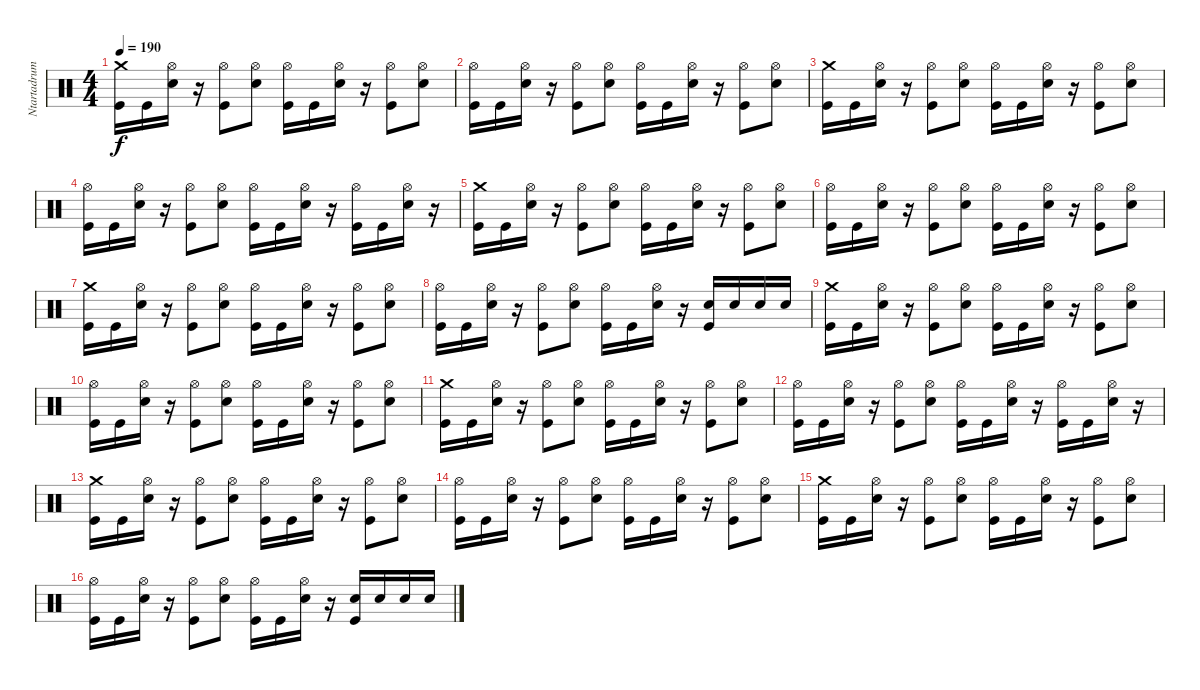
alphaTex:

\track ("Ntartadrum" "Ntartadrum") {instrument percussion}
\staff {score}
\articulation defaults
\ts (4 4)
\tempo 190
\clef neutral
\ks c
("Kick (hit)" "Crash medium (hit)").16{dy f} "Kick (hit)".16 ("Electric Snare (hit)" "Hi-Hat (open)").16 r.16 ("Kick (hit)" "Hi-Hat (open)").8 ("Electric Snare (hit)" "Hi-Hat (open)").8 ("Kick (hit)" "Hi-Hat (open)").16 "Kick (hit)".16 ("Electric Snare (hit)" "Hi-Hat (open)").16 r.16 ("Kick (hit)" "Hi-Hat (open)").8 ("Electric Snare (hit)" "Hi-Hat (open)").8 |
("Kick (hit)" "Hi-Hat (open)").16 "Kick (hit)".16 ("Electric Snare (hit)" "Hi-Hat (open)").16 r.16 ("Kick (hit)" "Hi-Hat (open)").8 ("Electric Snare (hit)" "Hi-Hat (open)").8 ("Kick (hit)" "Hi-Hat (open)").16 "Kick (hit)".16 ("Electric Snare (hit)" "Hi-Hat (open)").16 r.16 ("Kick (hit)" "Hi-Hat (open)").8 ("Electric Snare (hit)" "Hi-Hat (open)").8 |
("Kick (hit)" "Crash medium (hit)").16 "Kick (hit)".16 ("Electric Snare (hit)" "Hi-Hat (open)").16 r.16 ("Kick (hit)" "Hi-Hat (open)").8 ("Electric Snare (hit)" "Hi-Hat (open)").8 ("Kick (hit)" "Hi-Hat (open)").16 "Kick (hit)".16 ("Electric Snare (hit)" "Hi-Hat (open)").16 r.16 ("Kick (hit)" "Hi-Hat (open)").8 ("Electric Snare (hit)" "Hi-Hat (open)").8 |
("Kick (hit)" "Hi-Hat (open)").16 "Kick (hit)".16 ("Electric Snare (hit)" "Hi-Hat (open)").16 r.16 ("Kick (hit)" "Hi-Hat (open)").8 ("Electric Snare (hit)" "Hi-Hat (open)").8 ("Kick (hit)" "Hi-Hat (open)").16 "Kick (hit)".16 ("Electric Snare (hit)" "Hi-Hat (open)").16 r.16 ("Kick (hit)" "Hi-Hat (open)").16 "Kick (hit)".16 ("Electric Snare (hit)" "Hi-Hat (open)").16 r.16 |
("Kick (hit)" "Crash medium (hit)").16 "Kick (hit)".16 ("Electric Snare (hit)" "Hi-Hat (open)").16 r.16 ("Kick (hit)" "Hi-Hat (open)").8 ("Electric Snare (hit)" "Hi-Hat (open)").8 ("Kick (hit)" "Hi-Hat (open)").16 "Kick (hit)".16 ("Electric Snare (hit)" "Hi-Hat (open)").16 r.16 ("Kick (hit)" "Hi-Hat (open)").8 ("Electric Snare (hit)" "Hi-Hat (open)").8 |
("Kick (hit)" "Hi-Hat (open)").16 "Kick (hit)".16 ("Electric Snare (hit)" "Hi-Hat (open)").16 r.16 ("Kick (hit)" "Hi-Hat (open)").8 ("Electric Snare (hit)" "Hi-Hat (open)").8 ("Kick (hit)" "Hi-Hat (open)").16 "Kick (hit)".16 ("Electric Snare (hit)" "Hi-Hat (open)").16 r.16 ("Kick (hit)" "Hi-Hat (open)").8 ("Electric Snare (hit)" "Hi-Hat (open)").8 |
("Kick (hit)" "Crash medium (hit)").16 "Kick (hit)".16 ("Electric Snare (hit)" "Hi-Hat (open)").16 r.16 ("Kick (hit)" "Hi-Hat (open)").8 ("Electric Snare (hit)" "Hi-Hat (open)").8 ("Kick (hit)" "Hi-Hat (open)").16 "Kick (hit)".16 ("Electric Snare (hit)" "Hi-Hat (open)").16 r.16 ("Kick (hit)" "Hi-Hat (open)").8 ("Electric Snare (hit)" "Hi-Hat (open)").8 |
("Kick (hit)" "Hi-Hat (open)").16 "Kick (hit)".16 ("Electric Snare (hit)" "Hi-Hat (open)").16 r.16 ("Kick (hit)" "Hi-Hat (open)").8 ("Electric Snare (hit)" "Hi-Hat (open)").8 ("Kick (hit)" "Hi-Hat (open)").16 "Kick (hit)".16 ("Electric Snare (hit)" "Hi-Hat (open)").16 r.16 ("Kick (hit)" "Electric Snare (hit)").16 "Electric Snare (hit)".16 "Electric Snare (hit)".16 "Electric Snare (hit)".16 |
("Kick (hit)" "Crash medium (hit)").16 "Kick (hit)".16 ("Electric Snare (hit)" "Hi-Hat (open)").16 r.16 ("Kick (hit)" "Hi-Hat (open)").8 ("Electric Snare (hit)" "Hi-Hat (open)").8 ("Kick (hit)" "Hi-Hat (open)").16 "Kick (hit)".16 ("Electric Snare (hit)" "Hi-Hat (open)").16 r.16 ("Kick (hit)" "Hi-Hat (open)").8 ("Electric Snare (hit)" "Hi-Hat (open)").8 |
("Kick (hit)" "Hi-Hat (open)").16 "Kick (hit)".16 ("Electric Snare (hit)" "Hi-Hat (open)").16 r.16 ("Kick (hit)" "Hi-Hat (open)").8 ("Electric Snare (hit)" "Hi-Hat (open)").8 ("Kick (hit)" "Hi-Hat (open)").16 "Kick (hit)".16 ("Electric Snare (hit)" "Hi-Hat (open)").16 r.16 ("Kick (hit)" "Hi-Hat (open)").8 ("Electric Snare (hit)" "Hi-Hat (open)").8 |
("Kick (hit)" "Crash medium (hit)").16 "Kick (hit)".16 ("Electric Snare (hit)" "Hi-Hat (open)").16 r.16 ("Kick (hit)" "Hi-Hat (open)").8 ("Electric Snare (hit)" "Hi-Hat (open)").8 ("Kick (hit)" "Hi-Hat (open)").16 "Kick (hit)".16 ("Electric Snare (hit)" "Hi-Hat (open)").16 r.16 ("Kick (hit)" "Hi-Hat (open)").8 ("Electric Snare (hit)" "Hi-Hat (open)").8 |
("Kick (hit)" "Hi-Hat (open)").16 "Kick (hit)".16 ("Electric Snare (hit)" "Hi-Hat (open)").16 r.16 ("Kick (hit)" "Hi-Hat (open)").8 ("Electric Snare (hit)" "Hi-Hat (open)").8 ("Kick (hit)" "Hi-Hat (open)").16 "Kick (hit)".16 ("Electric Snare (hit)" "Hi-Hat (open)").16 r.16 ("Kick (hit)" "Hi-Hat (open)").16 "Kick (hit)".16 ("Electric Snare (hit)" "Hi-Hat (open)").16 r.16 |
("Kick (hit)" "Crash medium (hit)").16 "Kick (hit)".16 ("Electric Snare (hit)" "Hi-Hat (open)").16 r.16 ("Kick (hit)" "Hi-Hat (open)").8 ("Electric Snare (hit)" "Hi-Hat (open)").8 ("Kick (hit)" "Hi-Hat (open)").16 "Kick (hit)".16 ("Electric Snare (hit)" "Hi-Hat (open)").16 r.16 ("Kick (hit)" "Hi-Hat (open)").8 ("Electric Snare (hit)" "Hi-Hat (open)").8 |
("Kick (hit)" "Hi-Hat (open)").16 "Kick (hit)".16 ("Electric Snare (hit)" "Hi-Hat (open)").16 r.16 ("Kick (hit)" "Hi-Hat (open)").8 ("Electric Snare (hit)" "Hi-Hat (open)").8 ("Kick (hit)" "Hi-Hat (open)").16 "Kick (hit)".16 ("Electric Snare (hit)" "Hi-Hat (open)").16 r.16 ("Kick (hit)" "Hi-Hat (open)").8 ("Electric Snare (hit)" "Hi-Hat (open)").8 |
("Kick (hit)" "Crash medium (hit)").16 "Kick (hit)".16 ("Electric Snare (hit)" "Hi-Hat (open)").16 r.16 ("Kick (hit)" "Hi-Hat (open)").8 ("Electric Snare (hit)" "Hi-Hat (open)").8 ("Kick (hit)" "Hi-Hat (open)").16 "Kick (hit)".16 ("Electric Snare (hit)" "Hi-Hat (open)").16 r.16 ("Kick (hit)" "Hi-Hat (open)").8 ("Electric Snare (hit)" "Hi-Hat (open)").8 |
("Kick (hit)" "Hi-Hat (open)").16 "Kick (hit)".16 ("Electric Snare (hit)" "Hi-Hat (open)").16 r.16 ("Kick (hit)" "Hi-Hat (open)").8 ("Electric Snare (hit)" "Hi-Hat (open)").8 ("Kick (hit)" "Hi-Hat (open)").16 "Kick (hit)".16 ("Electric Snare (hit)" "Hi-Hat (open)").16 r.16 ("Kick (hit)" "Electric Snare (hit)").16 "Electric Snare (hit)".16 "Electric Snare (hit)".16 "Electric Snare (hit)".16
